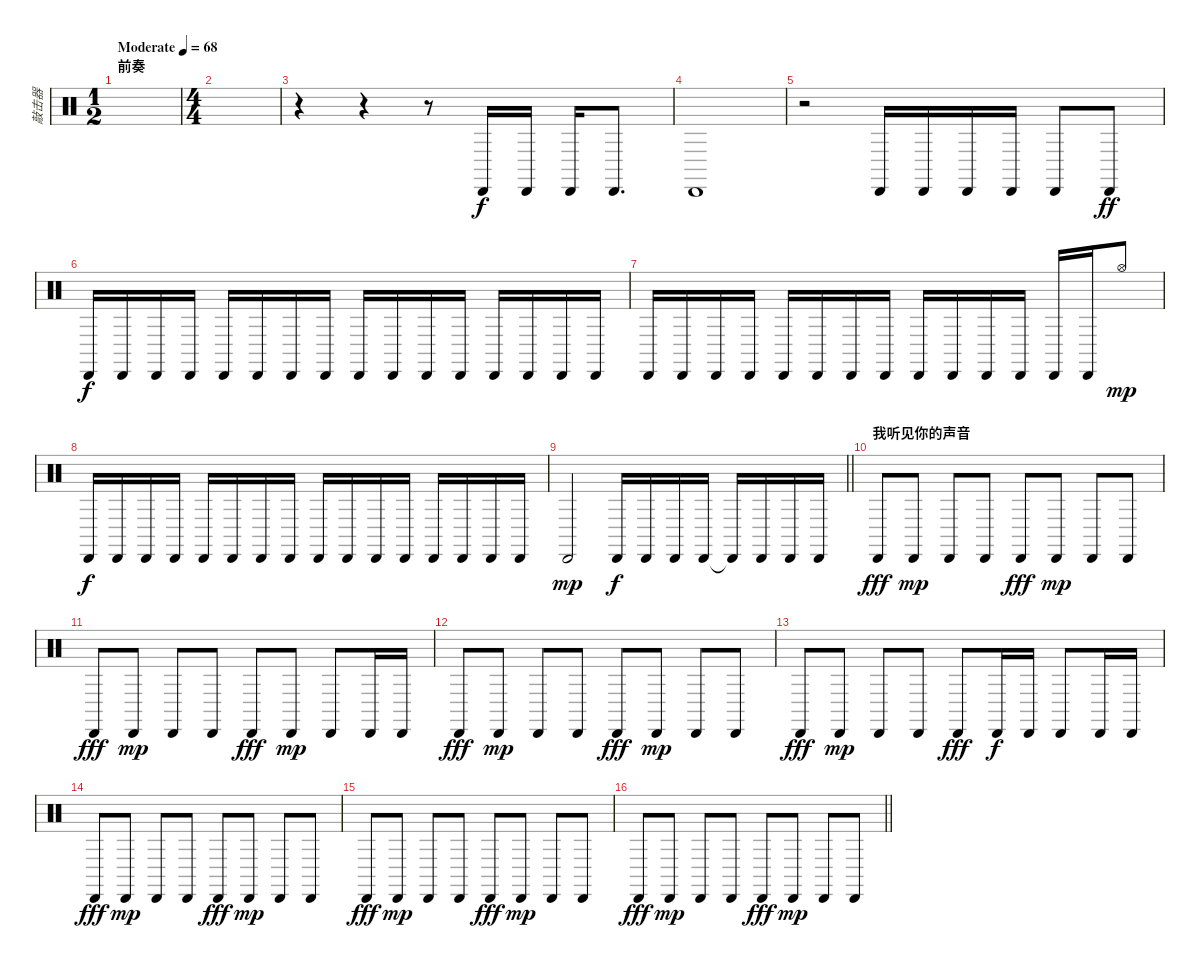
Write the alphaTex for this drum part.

\track ("敲击器" "敲击器") {instrument percussion}
\staff {score}
\articulation defaults
\ts (1 2)
\section ("" "前奏")
\tempo (68 "Moderate")
\clef neutral
\ks c
|
\ts (4 4)
|
r.4 r.4 r.8 "Cabasa (hit)".16 "Cabasa (hit)".16 "Cabasa (hit)".16 "Cabasa (hit)".8{d} |
"Cabasa (hit)".1 |
r.2 "Cabasa (hit)".16 "Cabasa (hit)".16 "Cabasa (hit)".16 "Cabasa (hit)".16 "Cabasa (hit)".8 "Cabasa (hit)".8{dy ff} |
"Cabasa (hit)".16{dy f} "Cabasa (hit)".16 "Cabasa (hit)".16 "Cabasa (hit)".16 "Cabasa (hit)".16 "Cabasa (hit)".16 "Cabasa (hit)".16 "Cabasa (hit)".16 "Cabasa (hit)".16 "Cabasa (hit)".16 "Cabasa (hit)".16 "Cabasa (hit)".16 "Cabasa (hit)".16 "Cabasa (hit)".16 "Cabasa (hit)".16 "Cabasa (hit)".16 |
"Cabasa (hit)".16 "Cabasa (hit)".16 "Cabasa (hit)".16 "Cabasa (hit)".16 "Cabasa (hit)".16 "Cabasa (hit)".16 "Cabasa (hit)".16 "Cabasa (hit)".16 "Cabasa (hit)".16 "Cabasa (hit)".16 "Cabasa (hit)".16 "Cabasa (hit)".16 "Cabasa (hit)".16 "Cabasa (hit)".16 "Hi-Hat (open)".8{dy mp} |
"Cabasa (hit)".16{dy f} "Cabasa (hit)".16 "Cabasa (hit)".16 "Cabasa (hit)".16 "Cabasa (hit)".16 "Cabasa (hit)".16 "Cabasa (hit)".16 "Cabasa (hit)".16 "Cabasa (hit)".16 "Cabasa (hit)".16 "Cabasa (hit)".16 "Cabasa (hit)".16 "Cabasa (hit)".16 "Cabasa (hit)".16 "Cabasa (hit)".16 "Cabasa (hit)".16 |
\barLineRight lightlight "Cabasa (hit)".2{dy mp} "Cabasa (hit)".16{dy f} "Cabasa (hit)".16 "Cabasa (hit)".16 "Cabasa (hit)".16 "Cabasa (hit)"{t}.16 "Cabasa (hit)".16 "Cabasa (hit)".16 "Cabasa (hit)".16
|
\section ("" "我听见你的声音")
"Cabasa (hit)".8{dy fff} "Cabasa (hit)".8{dy mp} "Cabasa (hit)".8 "Cabasa (hit)".8 "Cabasa (hit)".8{dy fff} "Cabasa (hit)".8{dy mp} "Cabasa (hit)".8 "Cabasa (hit)".8 |
"Cabasa (hit)".8{dy fff} "Cabasa (hit)".8{dy mp} "Cabasa (hit)".8 "Cabasa (hit)".8 "Cabasa (hit)".8{dy fff} "Cabasa (hit)".8{dy mp} "Cabasa (hit)".8 "Cabasa (hit)".16 "Cabasa (hit)".16 |
"Cabasa (hit)".8{dy fff} "Cabasa (hit)".8{dy mp} "Cabasa (hit)".8 "Cabasa (hit)".8 "Cabasa (hit)".8{dy fff} "Cabasa (hit)".8{dy mp} "Cabasa (hit)".8 "Cabasa (hit)".8 |
"Cabasa (hit)".8{dy fff} "Cabasa (hit)".8{dy mp} "Cabasa (hit)".8 "Cabasa (hit)".8 "Cabasa (hit)".8{dy fff} "Cabasa (hit)".16{dy f} "Cabasa (hit)".16 "Cabasa (hit)".8 "Cabasa (hit)".16 "Cabasa (hit)".16 |
"Cabasa (hit)".8{dy fff} "Cabasa (hit)".8{dy mp} "Cabasa (hit)".8 "Cabasa (hit)".8 "Cabasa (hit)".8{dy fff} "Cabasa (hit)".8{dy mp} "Cabasa (hit)".8 "Cabasa (hit)".8 |
"Cabasa (hit)".8{dy fff} "Cabasa (hit)".8{dy mp} "Cabasa (hit)".8 "Cabasa (hit)".8 "Cabasa (hit)".8{dy fff} "Cabasa (hit)".8{dy mp} "Cabasa (hit)".8 "Cabasa (hit)".8 |
\barLineRight lightlight "Cabasa (hit)".8{dy fff} "Cabasa (hit)".8{dy mp} "Cabasa (hit)".8 "Cabasa (hit)".8 "Cabasa (hit)".8{dy fff} "Cabasa (hit)".8{dy mp} "Cabasa (hit)".8 "Cabasa (hit)".8
